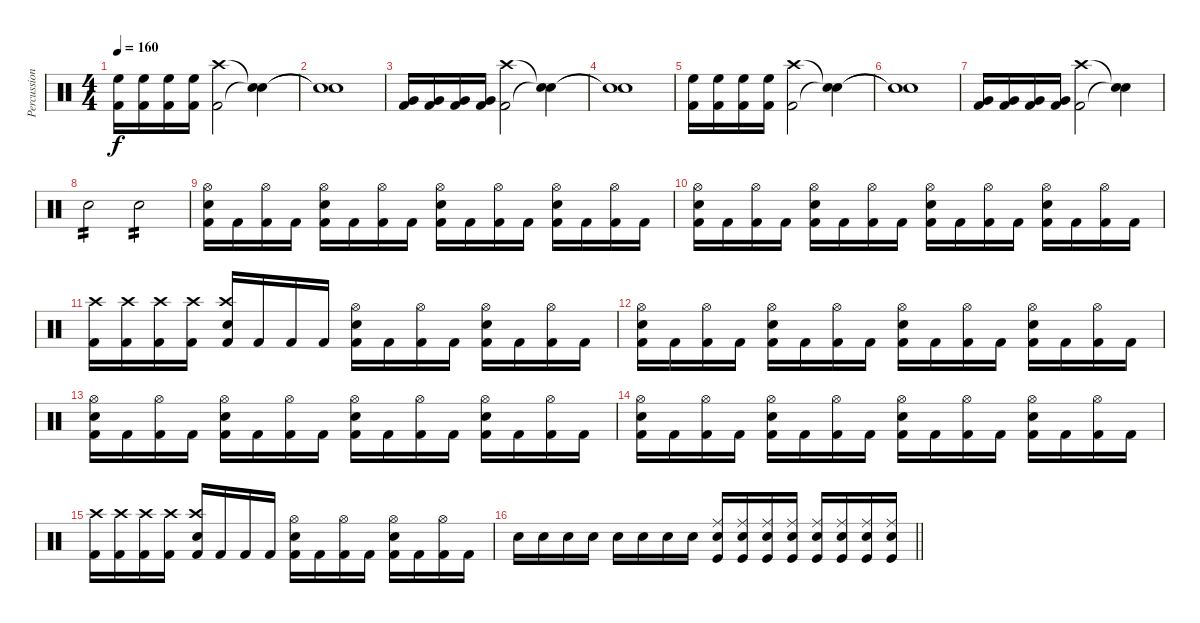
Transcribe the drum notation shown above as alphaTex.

\track ("Percussioni" "Percussion") {instrument percussion}
\staff {score}
\articulation defaults
\ts (4 4)
\tempo 160
\clef neutral
\ks c
("High Floor Tom (hit)" "Kick (hit) 2").16{dy f} ("High Floor Tom (hit)" "Kick (hit) 2").16 ("High Floor Tom (hit)" "Kick (hit) 2").16 ("High Floor Tom (hit)" "Kick (hit) 2").16 ("Crash high (hit)" "Kick (hit) 2").2 ("Snare (hit)"{t} "Snare (hit)"{t}).4 |
("Snare (hit)"{t} "Snare (hit)"{t}).1 |
("Very Low Tom (hit)" "Kick (hit) 2").16 ("Very Low Tom (hit)" "Kick (hit) 2").16 ("Very Low Tom (hit)" "Kick (hit) 2").16 ("Very Low Tom (hit)" "Kick (hit) 2").16 ("Crash high (hit)" "Kick (hit) 2").2 ("Snare (hit)"{t} "Snare (hit)"{t}).4 |
("Snare (hit)"{t} "Snare (hit)"{t}).1 |
("High Floor Tom (hit)" "Kick (hit) 2").16 ("High Floor Tom (hit)" "Kick (hit) 2").16 ("High Floor Tom (hit)" "Kick (hit) 2").16 ("High Floor Tom (hit)" "Kick (hit) 2").16 ("Crash high (hit)" "Kick (hit) 2").2 ("Snare (hit)"{t} "Snare (hit)"{t}).4 |
("Snare (hit)"{t} "Snare (hit)"{t}).1 |
("Very Low Tom (hit)" "Kick (hit) 2").16 ("Very Low Tom (hit)" "Kick (hit) 2").16 ("Very Low Tom (hit)" "Kick (hit) 2").16 ("Very Low Tom (hit)" "Kick (hit) 2").16 ("Crash high (hit)" "Kick (hit) 2").2 ("Snare (hit)"{t} "Snare (hit)"{t}).4 |
"Snare (hit) 2".2{tp 2} "Snare (hit) 2".2{tp 2} |
("Hi-Hat (open)" "Snare (hit) 2" "Kick (hit) 2").16 "Kick (hit) 2".16 ("Hi-Hat (open)" "Kick (hit) 2").16 "Kick (hit) 2".16 ("Hi-Hat (open)" "Snare (hit) 2" "Kick (hit) 2").16 "Kick (hit) 2".16 ("Hi-Hat (open)" "Kick (hit) 2").16 "Kick (hit) 2".16 ("Hi-Hat (open)" "Snare (hit) 2" "Kick (hit) 2").16 "Kick (hit) 2".16 ("Hi-Hat (open)" "Kick (hit) 2").16 "Kick (hit) 2".16 ("Hi-Hat (open)" "Snare (hit) 2" "Kick (hit) 2").16 "Kick (hit) 2".16 ("Hi-Hat (open)" "Kick (hit) 2").16 "Kick (hit) 2".16 |
("Hi-Hat (open)" "Snare (hit) 2" "Kick (hit) 2").16 "Kick (hit) 2".16 ("Hi-Hat (open)" "Kick (hit) 2").16 "Kick (hit) 2".16 ("Hi-Hat (open)" "Snare (hit) 2" "Kick (hit) 2").16 "Kick (hit) 2".16 ("Hi-Hat (open)" "Kick (hit) 2").16 "Kick (hit) 2".16 ("Hi-Hat (open)" "Snare (hit) 2" "Kick (hit) 2").16 "Kick (hit) 2".16 ("Hi-Hat (open)" "Kick (hit) 2").16 "Kick (hit) 2".16 ("Hi-Hat (open)" "Snare (hit) 2" "Kick (hit) 2").16 "Kick (hit) 2".16 ("Hi-Hat (open)" "Kick (hit) 2").16 "Kick (hit) 2".16 |
("Crash high (hit)" "Kick (hit) 2").16 ("Crash high (hit)" "Kick (hit) 2").16 ("Crash high (hit)" "Kick (hit) 2").16 ("Crash high (hit)" "Kick (hit) 2").16 ("Crash high (hit)" "Snare (hit) 2" "Kick (hit) 2").16 "Kick (hit) 2".16 "Kick (hit) 2".16 "Kick (hit) 2".16 ("Hi-Hat (open)" "Snare (hit) 2" "Kick (hit) 2").16 "Kick (hit) 2".16 ("Hi-Hat (open)" "Kick (hit) 2").16 "Kick (hit) 2".16 ("Hi-Hat (open)" "Snare (hit) 2" "Kick (hit) 2").16 "Kick (hit) 2".16 ("Hi-Hat (open)" "Kick (hit) 2").16 "Kick (hit) 2".16 |
("Hi-Hat (open)" "Snare (hit) 2" "Kick (hit) 2").16 "Kick (hit) 2".16 ("Hi-Hat (open)" "Kick (hit) 2").16 "Kick (hit) 2".16 ("Hi-Hat (open)" "Snare (hit) 2" "Kick (hit) 2").16 "Kick (hit) 2".16 ("Hi-Hat (open)" "Kick (hit) 2").16 "Kick (hit) 2".16 ("Hi-Hat (open)" "Snare (hit) 2" "Kick (hit) 2").16 "Kick (hit) 2".16 ("Hi-Hat (open)" "Kick (hit) 2").16 "Kick (hit) 2".16 ("Hi-Hat (open)" "Snare (hit) 2" "Kick (hit) 2").16 "Kick (hit) 2".16 ("Hi-Hat (open)" "Kick (hit) 2").16 "Kick (hit) 2".16 |
("Hi-Hat (open)" "Snare (hit) 2" "Kick (hit) 2").16 "Kick (hit) 2".16 ("Hi-Hat (open)" "Kick (hit) 2").16 "Kick (hit) 2".16 ("Hi-Hat (open)" "Snare (hit) 2" "Kick (hit) 2").16 "Kick (hit) 2".16 ("Hi-Hat (open)" "Kick (hit) 2").16 "Kick (hit) 2".16 ("Hi-Hat (open)" "Snare (hit) 2" "Kick (hit) 2").16 "Kick (hit) 2".16 ("Hi-Hat (open)" "Kick (hit) 2").16 "Kick (hit) 2".16 ("Hi-Hat (open)" "Snare (hit) 2" "Kick (hit) 2").16 "Kick (hit) 2".16 ("Hi-Hat (open)" "Kick (hit) 2").16 "Kick (hit) 2".16 |
("Hi-Hat (open)" "Snare (hit) 2" "Kick (hit) 2").16 "Kick (hit) 2".16 ("Hi-Hat (open)" "Kick (hit) 2").16 "Kick (hit) 2".16 ("Hi-Hat (open)" "Snare (hit) 2" "Kick (hit) 2").16 "Kick (hit) 2".16 ("Hi-Hat (open)" "Kick (hit) 2").16 "Kick (hit) 2".16 ("Hi-Hat (open)" "Snare (hit) 2" "Kick (hit) 2").16 "Kick (hit) 2".16 ("Hi-Hat (open)" "Kick (hit) 2").16 "Kick (hit) 2".16 ("Hi-Hat (open)" "Snare (hit) 2" "Kick (hit) 2").16 "Kick (hit) 2".16 ("Hi-Hat (open)" "Kick (hit) 2").16 "Kick (hit) 2".16 |
("Crash high (hit)" "Kick (hit) 2").16 ("Crash high (hit)" "Kick (hit) 2").16 ("Crash high (hit)" "Kick (hit) 2").16 ("Crash high (hit)" "Kick (hit) 2").16 ("Crash high (hit)" "Snare (hit) 2" "Kick (hit) 2").16 "Kick (hit) 2".16 "Kick (hit) 2".16 "Kick (hit) 2".16 ("Hi-Hat (open)" "Snare (hit) 2" "Kick (hit) 2").16 "Kick (hit) 2".16 ("Hi-Hat (open)" "Kick (hit) 2").16 "Kick (hit) 2".16 ("Hi-Hat (open)" "Snare (hit) 2" "Kick (hit) 2").16 "Kick (hit) 2".16 ("Hi-Hat (open)" "Kick (hit) 2").16 "Kick (hit) 2".16 |
\barLineRight lightlight "Snare (hit) 2".16 "Snare (hit) 2".16 "Snare (hit) 2".16 "Snare (hit) 2".16 "Snare (hit) 2".16 "Snare (hit) 2".16 "Snare (hit) 2".16 "Snare (hit) 2".16
("Ride (middle)" "Snare (hit) 2" "Kick (hit)").16 ("Ride (middle)" "Snare (hit) 2" "Kick (hit)").16 ("Ride (middle)" "Snare (hit) 2" "Kick (hit)").16 ("Ride (middle)" "Snare (hit) 2" "Kick (hit)").16 ("Ride (middle)" "Snare (hit) 2" "Kick (hit)").16 ("Ride (middle)" "Snare (hit) 2" "Kick (hit)").16 ("Ride (middle)" "Snare (hit) 2" "Kick (hit)").16 ("Ride (middle)" "Snare (hit) 2" "Kick (hit)").16
